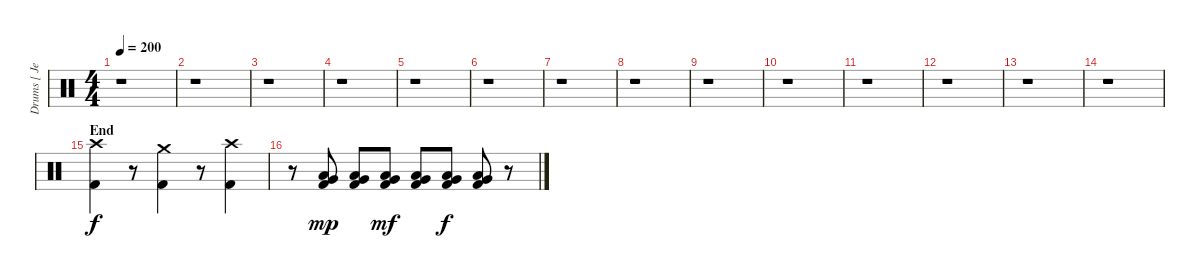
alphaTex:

\track ("Drums [ Jesse Ingelevics ]" "Drums [ Je") {instrument percussion}
\staff {score}
\articulation defaults
\ts (4 4)
\tempo 200
\clef neutral
\ks c
r.1{dy ff} |
r.1 |
r.1 |
r.1 |
r.1 |
r.1 |
r.1 |
r.1 |
r.1 |
r.1 |
r.1 |
r.1 |
r.1 |
r.1 |
\section ("" "End")
("Crash high (hit)" "Kick (hit) 2").4{dy f} r.8 ("Crash medium (hit)" "Kick (hit) 2").4 r.8 ("Crash high (hit)" "Kick (hit) 2").4 |
r.8 ("Kick (hit) 2" "Low Floor Tom (hit)" "Very Low Tom (hit)").8{dy mp} ("Low Floor Tom (hit)" "Very Low Tom (hit)" "Kick (hit) 2").8 ("Low Floor Tom (hit)" "Very Low Tom (hit)" "Kick (hit) 2").8{dy mf} ("Very Low Tom (hit)" "Low Floor Tom (hit)" "Kick (hit) 2").8 ("Low Floor Tom (hit)" "Very Low Tom (hit)" "Kick (hit) 2").8{dy f} ("Very Low Tom (hit)" "Low Floor Tom (hit)" "Kick (hit) 2").8 r.8
